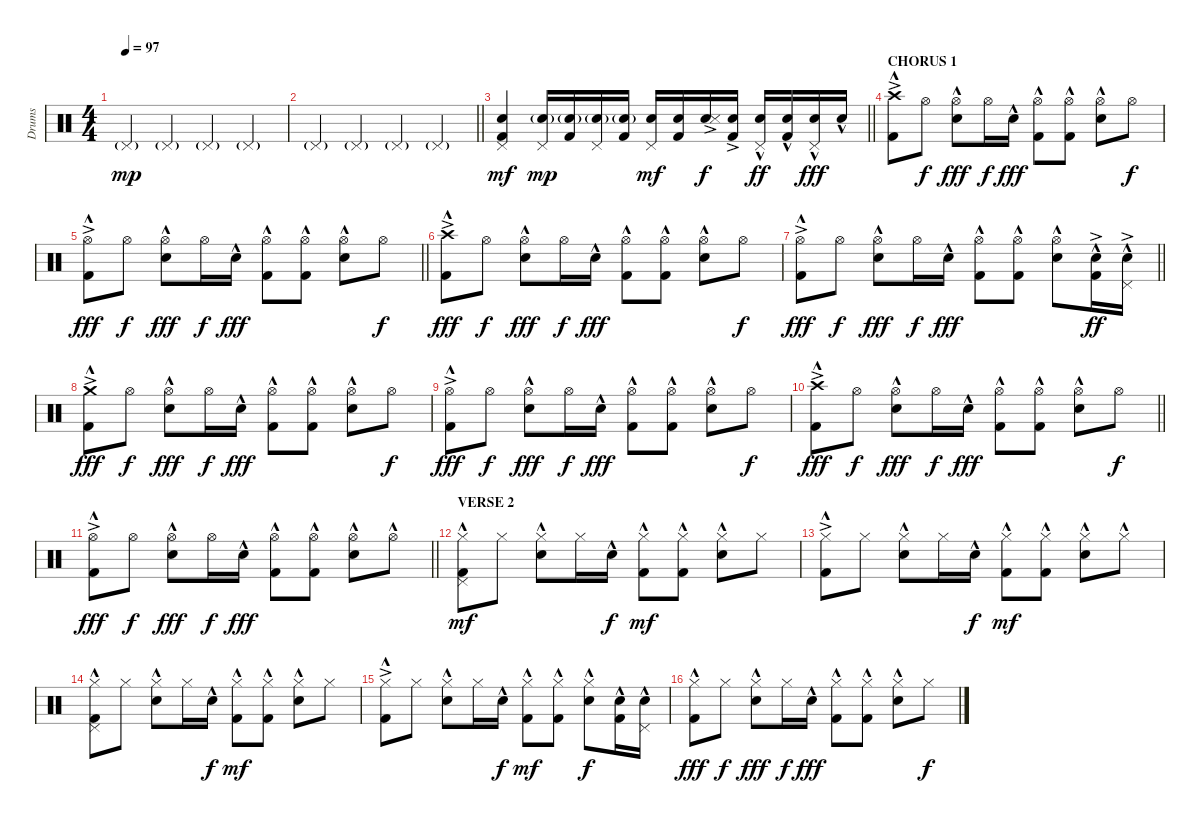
\track ("Drums" "Drums") {instrument percussion}
\staff {score}
\articulation defaults
\ts (4 4)
\tempo 97
\clef neutral
\ks c "Pedal Hi-Hat (hit)"{g}.4{dy mp} "Pedal Hi-Hat (hit)"{g}.4 "Pedal Hi-Hat (hit)"{g}.4 "Pedal Hi-Hat (hit)"{g}.4
|
\barLineRight lightlight "Pedal Hi-Hat (hit)"{g}.4 "Pedal Hi-Hat (hit)"{g}.4 "Pedal Hi-Hat (hit)"{g}.4 "Pedal Hi-Hat (hit)"{g}.4
|
\barLineRight lightlight
("Snare (hit) 2" "Pedal Hi-Hat (hit)" "Kick (hit) 2").4{dy mf} ("Snare (hit) 2"{g} "Pedal Hi-Hat (hit)").16{dy mp} ("Snare (hit) 2"{g} "Kick (hit) 2").16 ("Snare (hit) 2"{g} "Pedal Hi-Hat (hit)").16 ("Snare (hit) 2"{g} "Kick (hit) 2").16 ("Snare (hit) 2" "Pedal Hi-Hat (hit)").16{dy mf} ("Snare (hit) 2" "Kick (hit) 2").16 ("Snare (hit) 2"{ac} "Metronome (hit)").16{dy f} ("Snare (hit) 2"{ac} "Kick (hit) 2").16 ("Snare (hit) 2"{hac} "Pedal Hi-Hat (hit)").16{dy ff} ("Snare (hit) 2"{hac} "Kick (hit) 2").16 ("Snare (hit) 2"{hac} "Pedal Hi-Hat (hit)").16{dy fff} "Snare (hit) 2"{hac}.16 |
\section ("" "CHORUS 1")
("Crash high (hit)"{ac} "Kick (hit) 2"{hac}).8 "Hi-Hat (open)".8{dy f} ("Hi-Hat (open)" "Snare (hit) 2"{hac}).8{dy fff} "Hi-Hat (open)".16{dy f} "Snare (hit) 2"{hac}.16{dy fff} ("Hi-Hat (open)" "Kick (hit) 2"{hac}).8 ("Hi-Hat (open)" "Kick (hit) 2"{hac}).8 ("Hi-Hat (open)" "Snare (hit) 2"{hac}).8 "Hi-Hat (open)".8{dy f} |
\barLineRight lightlight
("Hi-Hat (open)"{ac} "Kick (hit) 2"{hac}).8{dy fff} "Hi-Hat (open)".8{dy f} ("Hi-Hat (open)" "Snare (hit) 2"{hac}).8{dy fff} "Hi-Hat (open)".16{dy f} "Snare (hit) 2"{hac}.16{dy fff} ("Hi-Hat (open)" "Kick (hit) 2"{hac}).8 ("Hi-Hat (open)" "Kick (hit) 2"{hac}).8 ("Hi-Hat (open)" "Snare (hit) 2"{hac}).8 "Hi-Hat (open)".8{dy f} |
("Crash high (hit)"{ac} "Kick (hit) 2"{hac}).8{dy fff} "Hi-Hat (open)".8{dy f} ("Hi-Hat (open)" "Snare (hit) 2"{hac}).8{dy fff} "Hi-Hat (open)".16{dy f} "Snare (hit) 2"{hac}.16{dy fff} ("Hi-Hat (open)" "Kick (hit) 2"{hac}).8 ("Hi-Hat (open)" "Kick (hit) 2"{hac}).8 ("Hi-Hat (open)" "Snare (hit) 2"{hac}).8 "Hi-Hat (open)".8{dy f} |
\barLineRight lightlight
("Hi-Hat (open)"{ac} "Kick (hit) 2"{hac}).8{dy fff} "Hi-Hat (open)".8{dy f} ("Hi-Hat (open)" "Snare (hit) 2"{hac}).8{dy fff} "Hi-Hat (open)".16{dy f} "Snare (hit) 2"{hac}.16{dy fff} ("Hi-Hat (open)" "Kick (hit) 2"{hac}).8 ("Hi-Hat (open)" "Kick (hit) 2"{hac}).8 ("Hi-Hat (open)" "Snare (hit) 2"{hac}).8 ("Snare (hit) 2"{hac} "Kick (hit) 2"{ac}).16{dy ff} ("Snare (hit) 2"{hac} "Pedal Hi-Hat (hit)"{ac}).16 |
("Crash medium (hit)"{ac} "Kick (hit) 2"{hac}).8{dy fff} "Hi-Hat (open)".8{dy f} ("Hi-Hat (open)" "Snare (hit) 2"{hac}).8{dy fff} "Hi-Hat (open)".16{dy f} "Snare (hit) 2"{hac}.16{dy fff} ("Hi-Hat (open)" "Kick (hit) 2"{hac}).8 ("Hi-Hat (open)" "Kick (hit) 2"{hac}).8 ("Hi-Hat (open)" "Snare (hit) 2"{hac}).8 "Hi-Hat (open)".8{dy f} |
("Hi-Hat (open)"{ac} "Kick (hit) 2"{hac}).8{dy fff} "Hi-Hat (open)".8{dy f} ("Hi-Hat (open)" "Snare (hit) 2"{hac}).8{dy fff} "Hi-Hat (open)".16{dy f} "Snare (hit) 2"{hac}.16{dy fff} ("Hi-Hat (open)" "Kick (hit) 2"{hac}).8 ("Hi-Hat (open)" "Kick (hit) 2"{hac}).8 ("Hi-Hat (open)" "Snare (hit) 2"{hac}).8 "Hi-Hat (open)".8{dy f} |
\barLineRight lightlight
("Crash high (hit)"{ac} "Kick (hit) 2"{hac}).8{dy fff} "Hi-Hat (open)".8{dy f} ("Hi-Hat (open)" "Snare (hit) 2"{hac}).8{dy fff} "Hi-Hat (open)".16{dy f} "Snare (hit) 2"{hac}.16{dy fff} ("Hi-Hat (open)" "Kick (hit) 2"{hac}).8 ("Hi-Hat (open)" "Kick (hit) 2"{hac}).8 ("Hi-Hat (open)" "Snare (hit) 2"{hac}).8 "Hi-Hat (open)".8{dy f} |
\barLineRight lightlight
("Hi-Hat (open)"{ac} "Kick (hit) 2"{hac}).8{dy fff} "Hi-Hat (open)".8{dy f} ("Hi-Hat (open)" "Snare (hit) 2"{hac}).8{dy fff} "Hi-Hat (open)".16{dy f} "Snare (hit) 2"{hac}.16{dy fff} ("Hi-Hat (open)" "Kick (hit) 2"{hac}).8 ("Hi-Hat (open)" "Kick (hit) 2"{hac}).8 ("Hi-Hat (open)" "Snare (hit) 2"{hac}).8 "Hi-Hat (open)"{hac}.8 |
\section ("" "VERSE 2")
("Hi-Hat (closed)" "Pedal Hi-Hat (hit)" "Kick (hit) 2"{hac}).8{dy mf} "Hi-Hat (closed)".8 ("Hi-Hat (closed)" "Snare (hit) 2"{hac}).8 "Hi-Hat (closed)".16 "Snare (hit) 2"{hac}.16{dy f} ("Hi-Hat (closed)" "Kick (hit) 2"{hac}).8{dy mf} ("Hi-Hat (closed)" "Kick (hit) 2"{hac}).8 ("Hi-Hat (closed)" "Snare (hit) 2"{hac}).8 "Hi-Hat (closed)".8 |
("Hi-Hat (closed)"{ac} "Kick (hit) 2"{hac}).8 "Hi-Hat (closed)".8 ("Hi-Hat (closed)" "Snare (hit) 2"{hac}).8 "Hi-Hat (closed)".16 "Snare (hit) 2"{hac}.16{dy f} ("Hi-Hat (closed)" "Kick (hit) 2"{hac}).8{dy mf} ("Hi-Hat (closed)" "Kick (hit) 2"{hac}).8 ("Hi-Hat (closed)" "Snare (hit) 2"{hac}).8 "Hi-Hat (closed)"{hac}.8 |
("Hi-Hat (closed)" "Pedal Hi-Hat (hit)" "Kick (hit) 2"{hac}).8 "Hi-Hat (closed)".8 ("Hi-Hat (closed)" "Snare (hit) 2"{hac}).8 "Hi-Hat (closed)".16 "Snare (hit) 2"{hac}.16{dy f} ("Hi-Hat (closed)" "Kick (hit) 2"{hac}).8{dy mf} ("Hi-Hat (closed)" "Kick (hit) 2"{hac}).8 ("Hi-Hat (closed)" "Snare (hit) 2"{hac}).8 "Hi-Hat (closed)".8 |
("Hi-Hat (closed)"{ac} "Kick (hit) 2"{hac}).8 "Hi-Hat (closed)".8 ("Hi-Hat (closed)" "Snare (hit) 2"{hac}).8 "Hi-Hat (closed)".16 "Snare (hit) 2"{hac}.16{dy f} ("Hi-Hat (closed)" "Kick (hit) 2"{hac}).8{dy mf} ("Hi-Hat (closed)" "Kick (hit) 2"{hac}).8 ("Hi-Hat (closed)" "Snare (hit) 2"{hac}).8{dy f} ("Snare (hit) 2"{hac} "Kick (hit) 2").16 ("Snare (hit) 2"{hac} "Pedal Hi-Hat (hit)").16 |
("Hi-Hat (closed)"{hac} "Kick (hit) 2"{hac}).8{dy fff} "Hi-Hat (closed)".8{dy f} ("Hi-Hat (closed)" "Snare (hit) 2"{hac}).8{dy fff} "Hi-Hat (closed)".16{dy f} "Snare (hit) 2"{hac}.16{dy fff} ("Hi-Hat (closed)" "Kick (hit) 2"{hac}).8 ("Hi-Hat (closed)" "Kick (hit) 2"{hac}).8 ("Hi-Hat (closed)" "Snare (hit) 2"{hac}).8 "Hi-Hat (closed)".8{dy f}
